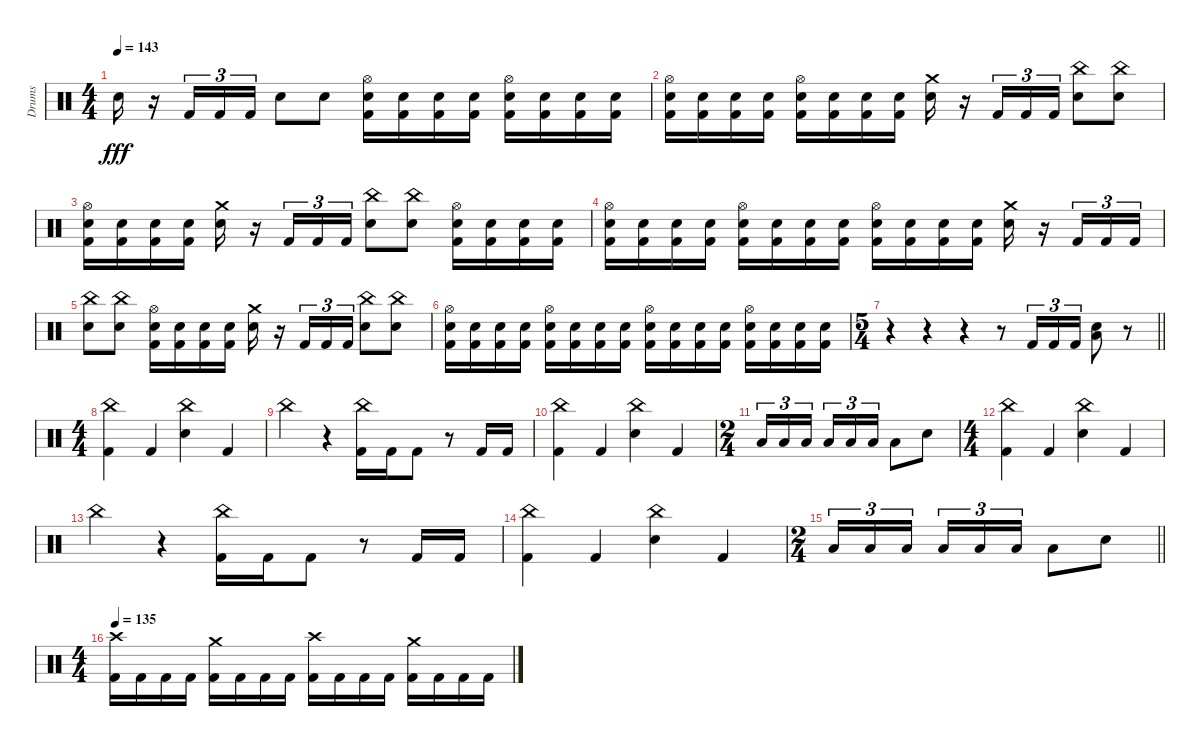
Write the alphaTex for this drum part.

\track ("Drums" "Drums") {instrument percussion}
\staff {score}
\articulation defaults
\ts (4 4)
\section ("" "")
\tempo 143
\clef neutral
\ks c "Electric Snare (hit)".16{dy fff}
r.16 "Kick (hit) 2".16{tu (3 2)} "Kick (hit) 2".16{tu (3 2)} "Kick (hit) 2".16{tu (3 2)} "Electric Snare (hit)".8 "Electric Snare (hit)".8 ("Hi-Hat (open)" "Electric Snare (hit)" "Kick (hit) 2").16 ("Electric Snare (hit)" "Kick (hit) 2").16 ("Electric Snare (hit)" "Kick (hit) 2").16 ("Electric Snare (hit)" "Kick (hit) 2").16 ("Hi-Hat (open)" "Electric Snare (hit)" "Kick (hit) 2").16 ("Electric Snare (hit)" "Kick (hit) 2").16 ("Electric Snare (hit)" "Kick (hit) 2").16 ("Electric Snare (hit)" "Kick (hit) 2").16 |
("Hi-Hat (open)" "Electric Snare (hit)" "Kick (hit) 2").16 ("Electric Snare (hit)" "Kick (hit) 2").16 ("Electric Snare (hit)" "Kick (hit) 2").16 ("Electric Snare (hit)" "Kick (hit) 2").16 ("Hi-Hat (open)" "Electric Snare (hit)" "Kick (hit) 2").16 ("Electric Snare (hit)" "Kick (hit) 2").16 ("Electric Snare (hit)" "Kick (hit) 2").16 ("Electric Snare (hit)" "Kick (hit) 2").16 ("Crash medium (hit)" "Electric Snare (hit)").16 r.16 "Kick (hit) 2".16{tu (3 2)} "Kick (hit) 2".16{tu (3 2)} "Kick (hit) 2".16{tu (3 2)} ("China (hit)" "Electric Snare (hit)").8 ("China (hit)" "Electric Snare (hit)").8 |
("Hi-Hat (open)" "Electric Snare (hit)" "Kick (hit) 2").16 ("Electric Snare (hit)" "Kick (hit) 2").16 ("Electric Snare (hit)" "Kick (hit) 2").16 ("Electric Snare (hit)" "Kick (hit) 2").16 ("Crash medium (hit)" "Electric Snare (hit)").16 r.16 "Kick (hit) 2".16{tu (3 2)} "Kick (hit) 2".16{tu (3 2)} "Kick (hit) 2".16{tu (3 2)} ("China (hit)" "Electric Snare (hit)").8 ("China (hit)" "Electric Snare (hit)").8 ("Hi-Hat (open)" "Electric Snare (hit)" "Kick (hit) 2").16 ("Electric Snare (hit)" "Kick (hit) 2").16 ("Electric Snare (hit)" "Kick (hit) 2").16 ("Electric Snare (hit)" "Kick (hit) 2").16 |
("Hi-Hat (open)" "Electric Snare (hit)" "Kick (hit) 2").16 ("Electric Snare (hit)" "Kick (hit) 2").16 ("Electric Snare (hit)" "Kick (hit) 2").16 ("Electric Snare (hit)" "Kick (hit) 2").16 ("Hi-Hat (open)" "Electric Snare (hit)" "Kick (hit) 2").16 ("Electric Snare (hit)" "Kick (hit) 2").16 ("Electric Snare (hit)" "Kick (hit) 2").16 ("Electric Snare (hit)" "Kick (hit) 2").16 ("Hi-Hat (open)" "Electric Snare (hit)" "Kick (hit) 2").16 ("Electric Snare (hit)" "Kick (hit) 2").16 ("Electric Snare (hit)" "Kick (hit) 2").16 ("Electric Snare (hit)" "Kick (hit) 2").16 ("Crash medium (hit)" "Electric Snare (hit)").16 r.16 "Kick (hit) 2".16{tu (3 2)} "Kick (hit) 2".16{tu (3 2)} "Kick (hit) 2".16{tu (3 2)} |
("China (hit)" "Electric Snare (hit)").8 ("China (hit)" "Electric Snare (hit)").8 ("Hi-Hat (open)" "Electric Snare (hit)" "Kick (hit) 2").16 ("Electric Snare (hit)" "Kick (hit) 2").16 ("Electric Snare (hit)" "Kick (hit) 2").16 ("Electric Snare (hit)" "Kick (hit) 2").16 ("Crash medium (hit)" "Electric Snare (hit)").16 r.16 "Kick (hit) 2".16{tu (3 2)} "Kick (hit) 2".16{tu (3 2)} "Kick (hit) 2".16{tu (3 2)} ("China (hit)" "Electric Snare (hit)").8 ("China (hit)" "Electric Snare (hit)").8 |
("Hi-Hat (open)" "Electric Snare (hit)" "Kick (hit) 2").16 ("Electric Snare (hit)" "Kick (hit) 2").16 ("Electric Snare (hit)" "Kick (hit) 2").16 ("Electric Snare (hit)" "Kick (hit) 2").16 ("Hi-Hat (open)" "Electric Snare (hit)" "Kick (hit) 2").16 ("Electric Snare (hit)" "Kick (hit) 2").16 ("Electric Snare (hit)" "Kick (hit) 2").16 ("Electric Snare (hit)" "Kick (hit) 2").16 ("Hi-Hat (open)" "Electric Snare (hit)" "Kick (hit) 2").16 ("Electric Snare (hit)" "Kick (hit) 2").16 ("Electric Snare (hit)" "Kick (hit) 2").16 ("Electric Snare (hit)" "Kick (hit) 2").16 ("Hi-Hat (open)" "Electric Snare (hit)" "Kick (hit) 2").16 ("Electric Snare (hit)" "Kick (hit) 2").16 ("Electric Snare (hit)" "Kick (hit) 2").16 ("Electric Snare (hit)" "Kick (hit) 2").16 |
\ts (5 4)
\barLineRight lightlight
r.4 r.4 r.4 r.8 "Kick (hit) 2".16{tu (3 2)} "Kick (hit) 2".16{tu (3 2)} "Kick (hit) 2".16{tu (3 2)} ("Electric Snare (hit)" "Low Tom (hit)").8 r.8 |
\ts (4 4)
\section ("" "")
("China (hit)" "Kick (hit) 2").4 "Kick (hit) 2".4 ("China (hit)" "Electric Snare (hit)").4 "Kick (hit) 2".4 |
"China (hit)".4 r.4 ("China (hit)" "Kick (hit) 2").16 "Kick (hit) 2".16 "Kick (hit) 2".8 r.8 "Kick (hit) 2".16 "Kick (hit) 2".16 |
("China (hit)" "Kick (hit) 2").4 "Kick (hit) 2".4 ("China (hit)" "Electric Snare (hit)").4 "Kick (hit) 2".4 |
\ts (2 4)
"Low Tom (hit)".16{tu (3 2)} "Low Tom (hit)".16{tu (3 2)} "Low Tom (hit)".16{tu (3 2) beam splitsecondary} "Low Tom (hit)".16{tu (3 2)} "Low Tom (hit)".16{tu (3 2)} "Low Tom (hit)".16{tu (3 2)} "Low Tom (hit)".8 "Electric Snare (hit)".8 |
\ts (4 4)
("China (hit)" "Kick (hit) 2").4 "Kick (hit) 2".4 ("China (hit)" "Electric Snare (hit)").4 "Kick (hit) 2".4 |
"China (hit)".4 r.4 ("China (hit)" "Kick (hit) 2").16 "Kick (hit) 2".16 "Kick (hit) 2".8 r.8 "Kick (hit) 2".16 "Kick (hit) 2".16 |
("China (hit)" "Kick (hit) 2").4 "Kick (hit) 2".4 ("China (hit)" "Electric Snare (hit)").4 "Kick (hit) 2".4 |
\ts (2 4)
\barLineRight lightlight "Low Tom (hit)".16{tu (3 2)} "Low Tom (hit)".16{tu (3 2)} "Low Tom (hit)".16{tu (3 2) beam splitsecondary} "Low Tom (hit)".16{tu (3 2)} "Low Tom (hit)".16{tu (3 2)} "Low Tom (hit)".16{tu (3 2)} "Low Tom (hit)".8 "Electric Snare (hit)".8
|
\ts (4 4)
\section ("" "")
\tempo 135
("Crash high (hit)" "Kick (hit) 2").16 "Kick (hit) 2".16 "Kick (hit) 2".16 "Kick (hit) 2".16 ("Crash medium (hit)" "Kick (hit) 2").16 "Kick (hit) 2".16 "Kick (hit) 2".16 "Kick (hit) 2".16 ("Crash high (hit)" "Kick (hit) 2").16 "Kick (hit) 2".16 "Kick (hit) 2".16 "Kick (hit) 2".16 ("Crash medium (hit)" "Kick (hit) 2").16 "Kick (hit) 2".16 "Kick (hit) 2".16 "Kick (hit) 2".16
